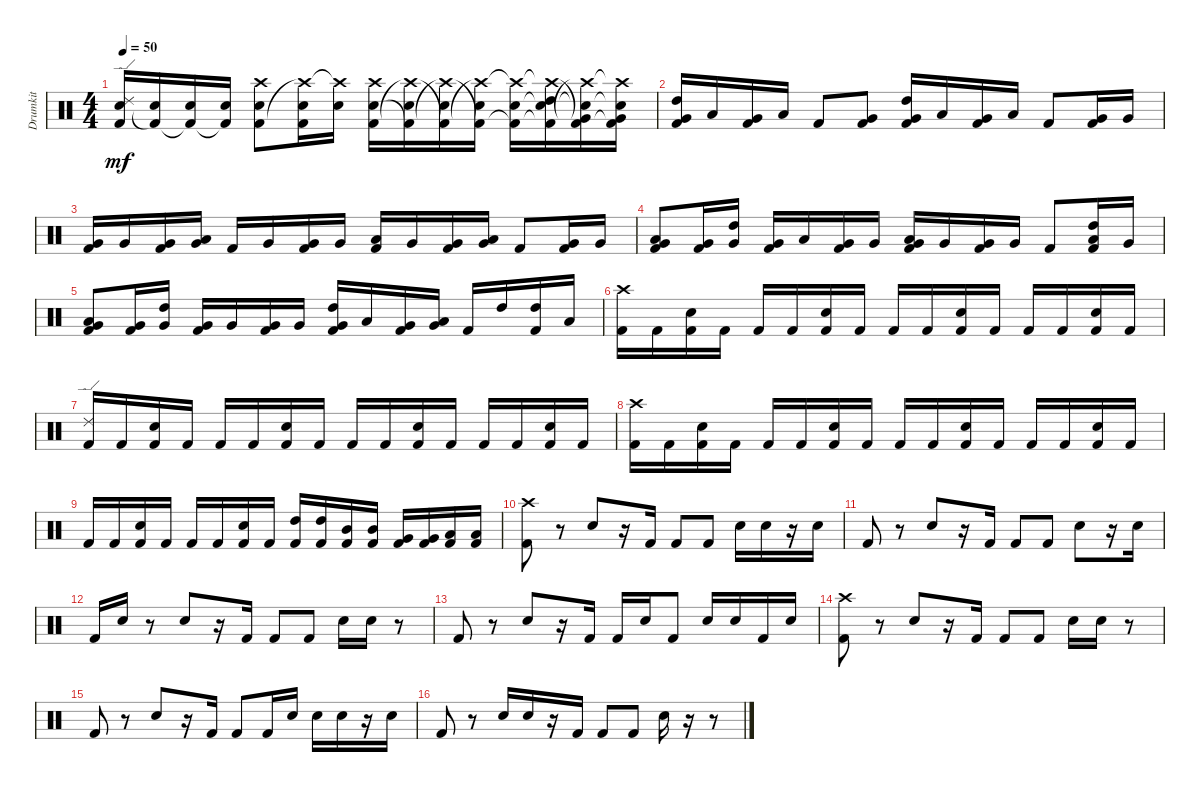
\track ("Drumkit" "Drumkit") {instrument percussion}
\staff {score}
\articulation defaults
\ts (4 4)
\tempo 50
\clef neutral
\ks c
("Snare (hit) 2"{t} "Ride (edge) 2" "Kick (hit) 2").16{dy mf} ("Kick (hit) 2"{t} "Snare (hit) 2").16 ("Kick (hit) 2"{t} "Snare (hit) 2").16 ("Kick (hit) 2"{t} "Snare (hit) 2").16 ("Kick (hit) 2" "Snare (hit) 2" "Crash high (hit)").8 ("Crash high (hit)"{t} "Snare (hit) 2" "Kick (hit) 2").16 ("Crash high (hit)"{t} "Snare (hit) 2").16 ("Snare (hit) 2" "Kick (hit) 2" "Crash high (hit)").16 ("Kick (hit) 2"{t} "Crash high (hit)"{t} "Snare (hit) 2").16 ("Crash high (hit)"{t} "Kick (hit) 2"{t} "Snare (hit) 2").16 ("Kick (hit) 2"{t} "Crash high (hit)"{t} "Snare (hit) 2").16 ("Kick (hit) 2"{t} "Crash high (hit)"{t} "Snare (hit) 2").16 ("Kick (hit) 2"{t} "Crash high (hit)"{t} "Snare (hit) 2"{t} "High Tom (hit)").16 ("Crash high (hit)"{t} "Kick (hit) 2"{t} "Snare (hit) 2"{t} "Very Low Tom (hit)").16 ("Crash high (hit)"{t} "Kick (hit) 2"{t} "Snare (hit) 2"{t} "Very Low Tom (hit)").16 |
("Kick (hit) 2" "Very Low Tom (hit)" "High Tom (hit)").16 "Low Tom (hit)".16 ("Kick (hit) 2" "Very Low Tom (hit)").16 "Low Tom (hit)".16 "Kick (hit) 2".8 ("Kick (hit) 2" "Very Low Tom (hit)").8 ("Kick (hit) 2" "Very Low Tom (hit)" "High Tom (hit)").16 "Low Tom (hit)".16 ("Kick (hit) 2" "Very Low Tom (hit)").16 "Low Tom (hit)".16 "Kick (hit) 2".8 ("Kick (hit) 2" "Very Low Tom (hit)").16 "Very Low Tom (hit)".16 |
("Very Low Tom (hit)" "Kick (hit) 2").16 "Very Low Tom (hit)".16 ("Kick (hit) 2" "Very Low Tom (hit)").16 ("Very Low Tom (hit)" "Low Tom (hit)").16 "Kick (hit) 2".16 "Very Low Tom (hit)".16 ("Kick (hit) 2" "Very Low Tom (hit)").16 "Very Low Tom (hit)".16 ("Kick (hit) 2" "Low Tom (hit)").16 "Very Low Tom (hit)".16 ("Kick (hit) 2" "Very Low Tom (hit)").16 ("Very Low Tom (hit)" "Low Tom (hit)").16 "Kick (hit) 2".8 ("Kick (hit) 2" "Very Low Tom (hit)").16 "Very Low Tom (hit)".16 |
("Kick (hit) 2" "Very Low Tom (hit)" "Low Tom (hit)").8 ("Kick (hit) 2" "Very Low Tom (hit)").16 ("Very Low Tom (hit)" "High Tom (hit)").16 ("Kick (hit) 2" "Very Low Tom (hit)").16 "Low Tom (hit)".16 ("Kick (hit) 2" "Very Low Tom (hit)").16 "Very Low Tom (hit)".16 ("Kick (hit) 2" "Very Low Tom (hit)" "Low Tom (hit)").16 "Very Low Tom (hit)".16 ("Kick (hit) 2" "Very Low Tom (hit)").16 "Very Low Tom (hit)".16 "Kick (hit) 2".8 ("Kick (hit) 2" "Low Tom (hit)" "High Tom (hit)").16 "Very Low Tom (hit)".16 |
("Kick (hit) 2" "Very Low Tom (hit)" "Low Tom (hit)").8 ("Kick (hit) 2" "Very Low Tom (hit)").16 ("Very Low Tom (hit)" "High Tom (hit)").16 ("Kick (hit) 2" "Very Low Tom (hit)").16 "Very Low Tom (hit)".16 ("Kick (hit) 2" "Very Low Tom (hit)").16 "Very Low Tom (hit)".16 ("Kick (hit) 2" "Very Low Tom (hit)" "High Tom (hit)").16 "Low Tom (hit)".16 ("Kick (hit) 2" "Very Low Tom (hit)").16 ("Very Low Tom (hit)" "Low Tom (hit)").16 "Kick (hit) 2".16 "High Tom (hit)".16 ("Kick (hit) 2" "High Tom (hit)").16 "Low Tom (hit)".16 |
("Kick (hit) 2" "Crash high (hit)").16 "Kick (hit) 2".16 ("Kick (hit) 2" "Snare (hit) 2").16 "Kick (hit) 2".16 "Kick (hit) 2".16 "Kick (hit) 2".16 ("Kick (hit) 2" "Snare (hit) 2").16 "Kick (hit) 2".16 "Kick (hit) 2".16 "Kick (hit) 2".16 ("Kick (hit) 2" "Snare (hit) 2").16 "Kick (hit) 2".16 "Kick (hit) 2".16 "Kick (hit) 2".16 ("Kick (hit) 2" "Snare (hit) 2").16 "Kick (hit) 2".16 |
("Kick (hit) 2" "Ride (edge) 2").16 "Kick (hit) 2".16 ("Kick (hit) 2" "Snare (hit) 2").16 "Kick (hit) 2".16 "Kick (hit) 2".16 "Kick (hit) 2".16 ("Kick (hit) 2" "Snare (hit) 2").16 "Kick (hit) 2".16 "Kick (hit) 2".16 "Kick (hit) 2".16 ("Kick (hit) 2" "Snare (hit) 2").16 "Kick (hit) 2".16 "Kick (hit) 2".16 "Kick (hit) 2".16 ("Kick (hit) 2" "Snare (hit) 2").16 "Kick (hit) 2".16 |
("Kick (hit) 2" "Crash high (hit)").16 "Kick (hit) 2".16 ("Kick (hit) 2" "Snare (hit) 2").16 "Kick (hit) 2".16 "Kick (hit) 2".16 "Kick (hit) 2".16 ("Kick (hit) 2" "Snare (hit) 2").16 "Kick (hit) 2".16 "Kick (hit) 2".16 "Kick (hit) 2".16 ("Kick (hit) 2" "Snare (hit) 2").16 "Kick (hit) 2".16 "Kick (hit) 2".16 "Kick (hit) 2".16 ("Kick (hit) 2" "Snare (hit) 2").16 "Kick (hit) 2".16 |
"Kick (hit) 2".16 "Kick (hit) 2".16 ("Kick (hit) 2" "Snare (hit) 2").16 "Kick (hit) 2".16 "Kick (hit) 2".16 "Kick (hit) 2".16 ("Kick (hit) 2" "Snare (hit) 2").16 "Kick (hit) 2".16 ("Kick (hit) 2" "High Tom (hit)").16 ("Kick (hit) 2" "High Tom (hit)").16 ("Kick (hit) 2" "Mid Tom (hit)").16 ("Kick (hit) 2" "Mid Tom (hit)").16 ("Kick (hit) 2" "Very Low Tom (hit)").16 ("Kick (hit) 2" "Very Low Tom (hit)").16 ("Kick (hit) 2" "Low Floor Tom (hit)").16 ("Kick (hit) 2" "Low Floor Tom (hit)").16 |
("Kick (hit) 2" "Crash high (hit)").8 r.8 "Snare (hit) 2".8 r.16 "Kick (hit) 2".16 "Kick (hit) 2".8 "Kick (hit) 2".8 "Snare (hit) 2".16 "Snare (hit) 2".16 r.16 "Snare (hit) 2".16 |
"Kick (hit) 2".8 r.8 "Snare (hit) 2".8 r.16 "Kick (hit) 2".16 "Kick (hit) 2".8 "Kick (hit) 2".8 "Snare (hit) 2".8 r.16 "Snare (hit) 2".16 |
"Kick (hit) 2".16 "Snare (hit) 2".16 r.8 "Snare (hit) 2".8 r.16 "Kick (hit) 2".16 "Kick (hit) 2".8 "Kick (hit) 2".8 "Snare (hit) 2".16 "Snare (hit) 2".16 r.8 |
"Kick (hit) 2".8 r.8 "Snare (hit) 2".8 r.16 "Kick (hit) 2".16 "Kick (hit) 2".16 "Snare (hit) 2".16 "Kick (hit) 2".8 "Snare (hit) 2".16 "Snare (hit) 2".16 "Kick (hit) 2".16 "Snare (hit) 2".16 |
("Kick (hit) 2" "Crash high (hit)").8 r.8 "Snare (hit) 2".8 r.16 "Kick (hit) 2".16 "Kick (hit) 2".8 "Kick (hit) 2".8 "Snare (hit) 2".16 "Snare (hit) 2".16 r.8 |
"Kick (hit) 2".8 r.8 "Snare (hit) 2".8 r.16 "Kick (hit) 2".16 "Kick (hit) 2".8 "Kick (hit) 2".16 "Snare (hit) 2".16 "Snare (hit) 2".16 "Snare (hit) 2".16 r.16 "Snare (hit) 2".16 |
"Kick (hit) 2".8 r.8 "Snare (hit) 2".16 "Snare (hit) 2".16 r.16 "Kick (hit) 2".16 "Kick (hit) 2".8 "Kick (hit) 2".8 "Snare (hit) 2".16 r.16 r.8
